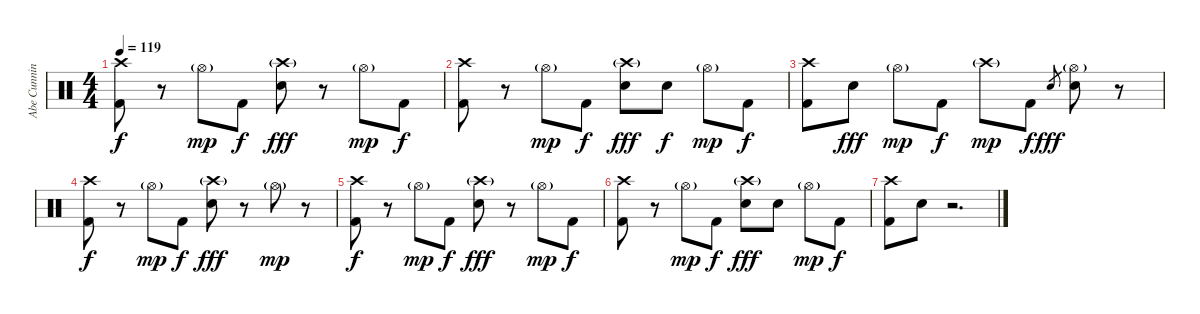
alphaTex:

\track ("Abe Cunningham" "Abe Cunnin") {instrument percussion}
\staff {score}
\articulation defaults
\ts (4 4)
\tempo 119
\clef neutral
\ks c
("Crash high (hit)" "Kick (hit) 2").8{dy f} r.8 "Hi-Hat (open)"{g}.8{dy mp} "Kick (hit) 2".8{dy f} ("Crash high (hit)"{g} "Snare (hit) 2").8{dy fff} r.8 "Hi-Hat (open)"{g}.8{dy mp} "Kick (hit) 2".8{dy f} |
("Crash high (hit)" "Kick (hit) 2").8 r.8 "Hi-Hat (open)"{g}.8{dy mp} "Kick (hit) 2".8{dy f} ("Crash high (hit)"{g} "Snare (hit) 2").8{dy fff} "Snare (hit) 2".8{dy f} "Hi-Hat (open)"{g}.8{dy mp} "Kick (hit) 2".8{dy f} |
("Crash high (hit)" "Kick (hit) 2").8 "Snare (hit) 2".8{dy fff} "Hi-Hat (open)"{g}.8{dy mp} "Kick (hit) 2".8{dy f} "Crash high (hit)"{g}.8{dy mp} "Kick (hit) 2".8{dy f} "Snare (hit) 2".8{gr dy fff} ("Hi-Hat (open)"{g} "Snare (hit) 2").8 r.8 |
("Crash high (hit)" "Kick (hit) 2").8{dy f volume 0} r.8 "Hi-Hat (open)"{g}.8{dy mp} "Kick (hit) 2".8{dy f} ("Crash high (hit)"{g} "Snare (hit) 2").8{dy fff} r.8 "Hi-Hat (open)"{g}.8{dy mp} r.8 |
("Crash high (hit)" "Kick (hit) 2").8{dy f} r.8 "Hi-Hat (open)"{g}.8{dy mp} "Kick (hit) 2".8{dy f} ("Crash high (hit)"{g} "Snare (hit) 2").8{dy fff} r.8 "Hi-Hat (open)"{g}.8{dy mp} "Kick (hit) 2".8{dy f} |
("Crash high (hit)" "Kick (hit) 2").8 r.8 "Hi-Hat (open)"{g}.8{dy mp} "Kick (hit) 2".8{dy f} ("Crash high (hit)"{g} "Snare (hit) 2").8{dy fff} "Snare (hit) 2".8 "Hi-Hat (open)"{g}.8{dy mp} "Kick (hit) 2".8{dy f} |
("Crash high (hit)" "Kick (hit) 2").8 "Snare (hit) 2".8 r.2{d}
